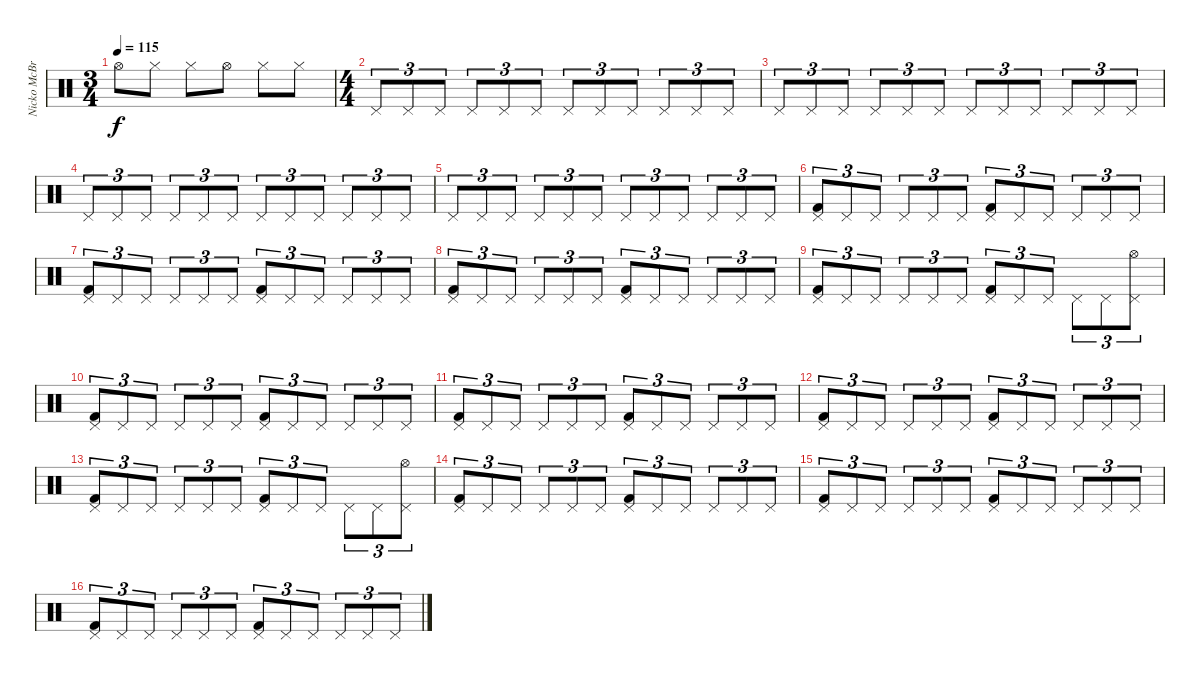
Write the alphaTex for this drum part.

\track ("Nicko McBrain" "Nicko McBr") {instrument percussion}
\staff {score}
\articulation defaults
\ts (3 4)
\tempo 115
\clef neutral
\ks c "Hi-Hat (open)".8{dy f} "Hi-Hat (closed)".8 "Hi-Hat (closed)".8 "Hi-Hat (open)".8 "Hi-Hat (closed)".8 "Hi-Hat (closed)".8
|
\ts (4 4)
"Pedal Hi-Hat (hit)".8{tu (3 2)} "Pedal Hi-Hat (hit)".8{tu (3 2)} "Pedal Hi-Hat (hit)".8{tu (3 2)} "Pedal Hi-Hat (hit)".8{tu (3 2)} "Pedal Hi-Hat (hit)".8{tu (3 2)} "Pedal Hi-Hat (hit)".8{tu (3 2)} "Pedal Hi-Hat (hit)".8{tu (3 2)} "Pedal Hi-Hat (hit)".8{tu (3 2)} "Pedal Hi-Hat (hit)".8{tu (3 2)} "Pedal Hi-Hat (hit)".8{tu (3 2)} "Pedal Hi-Hat (hit)".8{tu (3 2)} "Pedal Hi-Hat (hit)".8{tu (3 2)} |
"Pedal Hi-Hat (hit)".8{tu (3 2)} "Pedal Hi-Hat (hit)".8{tu (3 2)} "Pedal Hi-Hat (hit)".8{tu (3 2)} "Pedal Hi-Hat (hit)".8{tu (3 2)} "Pedal Hi-Hat (hit)".8{tu (3 2)} "Pedal Hi-Hat (hit)".8{tu (3 2)} "Pedal Hi-Hat (hit)".8{tu (3 2)} "Pedal Hi-Hat (hit)".8{tu (3 2)} "Pedal Hi-Hat (hit)".8{tu (3 2)} "Pedal Hi-Hat (hit)".8{tu (3 2)} "Pedal Hi-Hat (hit)".8{tu (3 2)} "Pedal Hi-Hat (hit)".8{tu (3 2)} |
"Pedal Hi-Hat (hit)".8{tu (3 2)} "Pedal Hi-Hat (hit)".8{tu (3 2)} "Pedal Hi-Hat (hit)".8{tu (3 2)} "Pedal Hi-Hat (hit)".8{tu (3 2)} "Pedal Hi-Hat (hit)".8{tu (3 2)} "Pedal Hi-Hat (hit)".8{tu (3 2)} "Pedal Hi-Hat (hit)".8{tu (3 2)} "Pedal Hi-Hat (hit)".8{tu (3 2)} "Pedal Hi-Hat (hit)".8{tu (3 2)} "Pedal Hi-Hat (hit)".8{tu (3 2)} "Pedal Hi-Hat (hit)".8{tu (3 2)} "Pedal Hi-Hat (hit)".8{tu (3 2)} |
"Pedal Hi-Hat (hit)".8{tu (3 2)} "Pedal Hi-Hat (hit)".8{tu (3 2)} "Pedal Hi-Hat (hit)".8{tu (3 2)} "Pedal Hi-Hat (hit)".8{tu (3 2)} "Pedal Hi-Hat (hit)".8{tu (3 2)} "Pedal Hi-Hat (hit)".8{tu (3 2)} "Pedal Hi-Hat (hit)".8{tu (3 2)} "Pedal Hi-Hat (hit)".8{tu (3 2)} "Pedal Hi-Hat (hit)".8{tu (3 2)} "Pedal Hi-Hat (hit)".8{tu (3 2)} "Pedal Hi-Hat (hit)".8{tu (3 2)} "Pedal Hi-Hat (hit)".8{tu (3 2)} |
("Pedal Hi-Hat (hit)" "Kick (hit) 2").8{tu (3 2)} "Pedal Hi-Hat (hit)".8{tu (3 2)} "Pedal Hi-Hat (hit)".8{tu (3 2)} "Pedal Hi-Hat (hit)".8{tu (3 2)} "Pedal Hi-Hat (hit)".8{tu (3 2)} "Pedal Hi-Hat (hit)".8{tu (3 2)} ("Pedal Hi-Hat (hit)" "Kick (hit) 2").8{tu (3 2)} "Pedal Hi-Hat (hit)".8{tu (3 2)} "Pedal Hi-Hat (hit)".8{tu (3 2)} "Pedal Hi-Hat (hit)".8{tu (3 2)} "Pedal Hi-Hat (hit)".8{tu (3 2)} "Pedal Hi-Hat (hit)".8{tu (3 2)} |
("Pedal Hi-Hat (hit)" "Kick (hit) 2").8{tu (3 2)} "Pedal Hi-Hat (hit)".8{tu (3 2)} "Pedal Hi-Hat (hit)".8{tu (3 2)} "Pedal Hi-Hat (hit)".8{tu (3 2)} "Pedal Hi-Hat (hit)".8{tu (3 2)} "Pedal Hi-Hat (hit)".8{tu (3 2)} ("Pedal Hi-Hat (hit)" "Kick (hit) 2").8{tu (3 2)} "Pedal Hi-Hat (hit)".8{tu (3 2)} "Pedal Hi-Hat (hit)".8{tu (3 2)} "Pedal Hi-Hat (hit)".8{tu (3 2)} "Pedal Hi-Hat (hit)".8{tu (3 2)} "Pedal Hi-Hat (hit)".8{tu (3 2)} |
("Pedal Hi-Hat (hit)" "Kick (hit) 2").8{tu (3 2)} "Pedal Hi-Hat (hit)".8{tu (3 2)} "Pedal Hi-Hat (hit)".8{tu (3 2)} "Pedal Hi-Hat (hit)".8{tu (3 2)} "Pedal Hi-Hat (hit)".8{tu (3 2)} "Pedal Hi-Hat (hit)".8{tu (3 2)} ("Pedal Hi-Hat (hit)" "Kick (hit) 2").8{tu (3 2)} "Pedal Hi-Hat (hit)".8{tu (3 2)} "Pedal Hi-Hat (hit)".8{tu (3 2)} "Pedal Hi-Hat (hit)".8{tu (3 2)} "Pedal Hi-Hat (hit)".8{tu (3 2)} "Pedal Hi-Hat (hit)".8{tu (3 2)} |
("Pedal Hi-Hat (hit)" "Kick (hit) 2").8{tu (3 2)} "Pedal Hi-Hat (hit)".8{tu (3 2)} "Pedal Hi-Hat (hit)".8{tu (3 2)} "Pedal Hi-Hat (hit)".8{tu (3 2)} "Pedal Hi-Hat (hit)".8{tu (3 2)} "Pedal Hi-Hat (hit)".8{tu (3 2)} ("Pedal Hi-Hat (hit)" "Kick (hit) 2").8{tu (3 2)} "Pedal Hi-Hat (hit)".8{tu (3 2)} "Pedal Hi-Hat (hit)".8{tu (3 2)} "Pedal Hi-Hat (hit)".8{tu (3 2)} "Pedal Hi-Hat (hit)".8{tu (3 2)} ("Pedal Hi-Hat (hit)" "Hi-Hat (open)").8{tu (3 2)} |
("Pedal Hi-Hat (hit)" "Kick (hit) 2").8{tu (3 2)} "Pedal Hi-Hat (hit)".8{tu (3 2)} "Pedal Hi-Hat (hit)".8{tu (3 2)} "Pedal Hi-Hat (hit)".8{tu (3 2)} "Pedal Hi-Hat (hit)".8{tu (3 2)} "Pedal Hi-Hat (hit)".8{tu (3 2)} ("Pedal Hi-Hat (hit)" "Kick (hit) 2").8{tu (3 2)} "Pedal Hi-Hat (hit)".8{tu (3 2)} "Pedal Hi-Hat (hit)".8{tu (3 2)} "Pedal Hi-Hat (hit)".8{tu (3 2)} "Pedal Hi-Hat (hit)".8{tu (3 2)} "Pedal Hi-Hat (hit)".8{tu (3 2)} |
("Pedal Hi-Hat (hit)" "Kick (hit) 2").8{tu (3 2)} "Pedal Hi-Hat (hit)".8{tu (3 2)} "Pedal Hi-Hat (hit)".8{tu (3 2)} "Pedal Hi-Hat (hit)".8{tu (3 2)} "Pedal Hi-Hat (hit)".8{tu (3 2)} "Pedal Hi-Hat (hit)".8{tu (3 2)} ("Pedal Hi-Hat (hit)" "Kick (hit) 2").8{tu (3 2)} "Pedal Hi-Hat (hit)".8{tu (3 2)} "Pedal Hi-Hat (hit)".8{tu (3 2)} "Pedal Hi-Hat (hit)".8{tu (3 2)} "Pedal Hi-Hat (hit)".8{tu (3 2)} "Pedal Hi-Hat (hit)".8{tu (3 2)} |
("Pedal Hi-Hat (hit)" "Kick (hit) 2").8{tu (3 2)} "Pedal Hi-Hat (hit)".8{tu (3 2)} "Pedal Hi-Hat (hit)".8{tu (3 2)} "Pedal Hi-Hat (hit)".8{tu (3 2)} "Pedal Hi-Hat (hit)".8{tu (3 2)} "Pedal Hi-Hat (hit)".8{tu (3 2)} ("Pedal Hi-Hat (hit)" "Kick (hit) 2").8{tu (3 2)} "Pedal Hi-Hat (hit)".8{tu (3 2)} "Pedal Hi-Hat (hit)".8{tu (3 2)} "Pedal Hi-Hat (hit)".8{tu (3 2)} "Pedal Hi-Hat (hit)".8{tu (3 2)} "Pedal Hi-Hat (hit)".8{tu (3 2)} |
("Pedal Hi-Hat (hit)" "Kick (hit) 2").8{tu (3 2)} "Pedal Hi-Hat (hit)".8{tu (3 2)} "Pedal Hi-Hat (hit)".8{tu (3 2)} "Pedal Hi-Hat (hit)".8{tu (3 2)} "Pedal Hi-Hat (hit)".8{tu (3 2)} "Pedal Hi-Hat (hit)".8{tu (3 2)} ("Pedal Hi-Hat (hit)" "Kick (hit) 2").8{tu (3 2)} "Pedal Hi-Hat (hit)".8{tu (3 2)} "Pedal Hi-Hat (hit)".8{tu (3 2)} "Pedal Hi-Hat (hit)".8{tu (3 2)} "Pedal Hi-Hat (hit)".8{tu (3 2)} ("Pedal Hi-Hat (hit)" "Hi-Hat (open)").8{tu (3 2)} |
("Pedal Hi-Hat (hit)" "Kick (hit) 2").8{tu (3 2)} "Pedal Hi-Hat (hit)".8{tu (3 2)} "Pedal Hi-Hat (hit)".8{tu (3 2)} "Pedal Hi-Hat (hit)".8{tu (3 2)} "Pedal Hi-Hat (hit)".8{tu (3 2)} "Pedal Hi-Hat (hit)".8{tu (3 2)} ("Pedal Hi-Hat (hit)" "Kick (hit) 2").8{tu (3 2)} "Pedal Hi-Hat (hit)".8{tu (3 2)} "Pedal Hi-Hat (hit)".8{tu (3 2)} "Pedal Hi-Hat (hit)".8{tu (3 2)} "Pedal Hi-Hat (hit)".8{tu (3 2)} "Pedal Hi-Hat (hit)".8{tu (3 2)} |
("Pedal Hi-Hat (hit)" "Kick (hit) 2").8{tu (3 2)} "Pedal Hi-Hat (hit)".8{tu (3 2)} "Pedal Hi-Hat (hit)".8{tu (3 2)} "Pedal Hi-Hat (hit)".8{tu (3 2)} "Pedal Hi-Hat (hit)".8{tu (3 2)} "Pedal Hi-Hat (hit)".8{tu (3 2)} ("Pedal Hi-Hat (hit)" "Kick (hit) 2").8{tu (3 2)} "Pedal Hi-Hat (hit)".8{tu (3 2)} "Pedal Hi-Hat (hit)".8{tu (3 2)} "Pedal Hi-Hat (hit)".8{tu (3 2)} "Pedal Hi-Hat (hit)".8{tu (3 2)} "Pedal Hi-Hat (hit)".8{tu (3 2)} |
("Pedal Hi-Hat (hit)" "Kick (hit) 2").8{tu (3 2)} "Pedal Hi-Hat (hit)".8{tu (3 2)} "Pedal Hi-Hat (hit)".8{tu (3 2)} "Pedal Hi-Hat (hit)".8{tu (3 2)} "Pedal Hi-Hat (hit)".8{tu (3 2)} "Pedal Hi-Hat (hit)".8{tu (3 2)} ("Pedal Hi-Hat (hit)" "Kick (hit) 2").8{tu (3 2)} "Pedal Hi-Hat (hit)".8{tu (3 2)} "Pedal Hi-Hat (hit)".8{tu (3 2)} "Pedal Hi-Hat (hit)".8{tu (3 2)} "Pedal Hi-Hat (hit)".8{tu (3 2)} "Pedal Hi-Hat (hit)".8{tu (3 2)}
